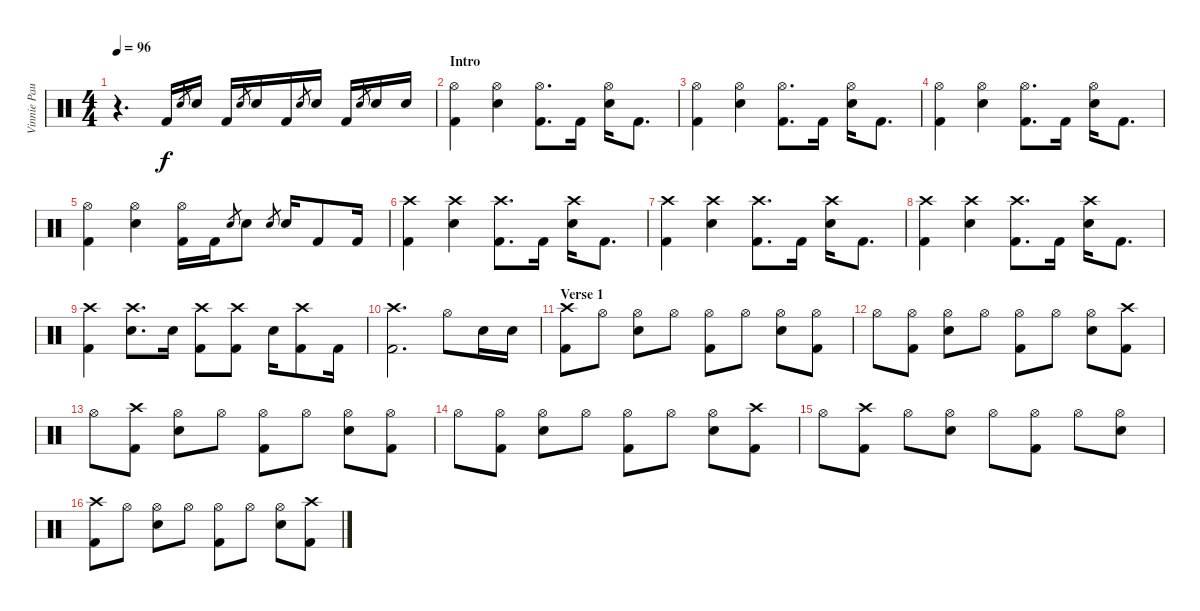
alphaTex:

\track ("Vinnie Paul" "Vinnie Pau") {instrument percussion}
\staff {score}
\articulation defaults
\ts (4 4)
\tempo 96
\clef neutral
\ks c
r.4{d dy f} "Kick (hit) 2".16 "Snare (hit)".8{gr} "Snare (hit) 2".16 "Kick (hit) 2".16 "Snare (hit)".8{gr} "Snare (hit) 2".16 "Kick (hit) 2".16 "Snare (hit)".8{gr} "Snare (hit) 2".16 "Kick (hit) 2".16 "Snare (hit)".8{gr} "Snare (hit) 2".16 "Snare (hit) 2".16 |
\section ("" "Intro")
("Kick (hit) 2" "Hi-Hat (open)").4 ("Snare (hit) 2" "Hi-Hat (open)").4 ("Kick (hit) 2" "Hi-Hat (open)").8{d} "Kick (hit) 2".16 ("Snare (hit) 2" "Hi-Hat (open)").16 "Kick (hit) 2".8{d} |
("Kick (hit) 2" "Hi-Hat (open)").4 ("Snare (hit) 2" "Hi-Hat (open)").4 ("Kick (hit) 2" "Hi-Hat (open)").8{d} "Kick (hit) 2".16 ("Snare (hit) 2" "Hi-Hat (open)").16 "Kick (hit) 2".8{d} |
("Kick (hit) 2" "Hi-Hat (open)").4 ("Snare (hit) 2" "Hi-Hat (open)").4 ("Kick (hit) 2" "Hi-Hat (open)").8{d} "Kick (hit) 2".16 ("Snare (hit) 2" "Hi-Hat (open)").16 "Kick (hit) 2".8{d} |
("Kick (hit) 2" "Hi-Hat (open)").4 ("Snare (hit) 2" "Hi-Hat (open)").4 ("Kick (hit) 2" "Hi-Hat (open)").16 "Kick (hit) 2".16 "Snare (hit)".8{gr} "Snare (hit) 2".8 "Snare (hit)".8{gr} "Snare (hit) 2".16 "Kick (hit) 2".8 "Kick (hit) 2".16 |
("Crash high (hit)" "Kick (hit) 2").4 ("Crash high (hit)" "Snare (hit) 2").4 ("Crash high (hit)" "Kick (hit) 2").8{d} "Kick (hit) 2".16 ("Crash high (hit)" "Snare (hit) 2").16 "Kick (hit) 2".8{d} |
("Crash high (hit)" "Kick (hit) 2").4 ("Crash high (hit)" "Snare (hit) 2").4 ("Crash high (hit)" "Kick (hit) 2").8{d} "Kick (hit) 2".16 ("Crash high (hit)" "Snare (hit) 2").16 "Kick (hit) 2".8{d} |
("Crash high (hit)" "Kick (hit) 2").4 ("Crash high (hit)" "Snare (hit) 2").4 ("Crash high (hit)" "Kick (hit) 2").8{d} "Kick (hit) 2".16 ("Crash high (hit)" "Snare (hit) 2").16 "Kick (hit) 2".8{d} |
("Crash high (hit)" "Kick (hit) 2").4 ("Crash high (hit)" "Snare (hit) 2").8{d} "Snare (hit) 2".16 ("Crash high (hit)" "Kick (hit) 2").8 ("Crash high (hit)" "Kick (hit) 2").8 "Snare (hit) 2".16 ("Crash high (hit)" "Kick (hit) 2").8 "Kick (hit) 2".16 |
("Crash high (hit)" "Kick (hit) 2").2{d} "Hi-Hat (open)".8 "Snare (hit) 2".16 "Snare (hit) 2".16 |
\section ("" "Verse 1")
("Crash high (hit)" "Kick (hit) 2").8 "Hi-Hat (open)".8 ("Snare (hit) 2" "Hi-Hat (open)").8 "Hi-Hat (open)".8 ("Kick (hit) 2" "Hi-Hat (open)").8 "Hi-Hat (open)".8 ("Snare (hit) 2" "Hi-Hat (open)").8 ("Kick (hit) 2" "Hi-Hat (open)").8 |
"Hi-Hat (open)".8 ("Kick (hit) 2" "Hi-Hat (open)").8 ("Snare (hit) 2" "Hi-Hat (open)").8 "Hi-Hat (open)".8 ("Kick (hit) 2" "Hi-Hat (open)").8 "Hi-Hat (open)".8 ("Snare (hit) 2" "Hi-Hat (open)").8 ("Crash high (hit)" "Kick (hit) 2").8 |
"Hi-Hat (open)".8 ("Crash high (hit)" "Kick (hit) 2").8 ("Snare (hit) 2" "Hi-Hat (open)").8 "Hi-Hat (open)".8 ("Kick (hit) 2" "Hi-Hat (open)").8 "Hi-Hat (open)".8 ("Snare (hit) 2" "Hi-Hat (open)").8 ("Kick (hit) 2" "Hi-Hat (open)").8 |
"Hi-Hat (open)".8 ("Kick (hit) 2" "Hi-Hat (open)").8 ("Snare (hit) 2" "Hi-Hat (open)").8 "Hi-Hat (open)".8 ("Kick (hit) 2" "Hi-Hat (open)").8 "Hi-Hat (open)".8 ("Snare (hit) 2" "Hi-Hat (open)").8 ("Crash high (hit)" "Kick (hit) 2").8 |
"Hi-Hat (open)".8 ("Crash high (hit)" "Kick (hit) 2").8 "Hi-Hat (open)".8 ("Snare (hit) 2" "Hi-Hat (open)").8 "Hi-Hat (open)".8 ("Kick (hit) 2" "Hi-Hat (open)").8 "Hi-Hat (open)".8 ("Snare (hit) 2" "Hi-Hat (open)").8 |
("Crash high (hit)" "Kick (hit) 2").8 "Hi-Hat (open)".8 ("Snare (hit) 2" "Hi-Hat (open)").8 "Hi-Hat (open)".8 ("Kick (hit) 2" "Hi-Hat (open)").8 "Hi-Hat (open)".8 ("Snare (hit) 2" "Hi-Hat (open)").8 ("Crash high (hit)" "Kick (hit) 2").8
